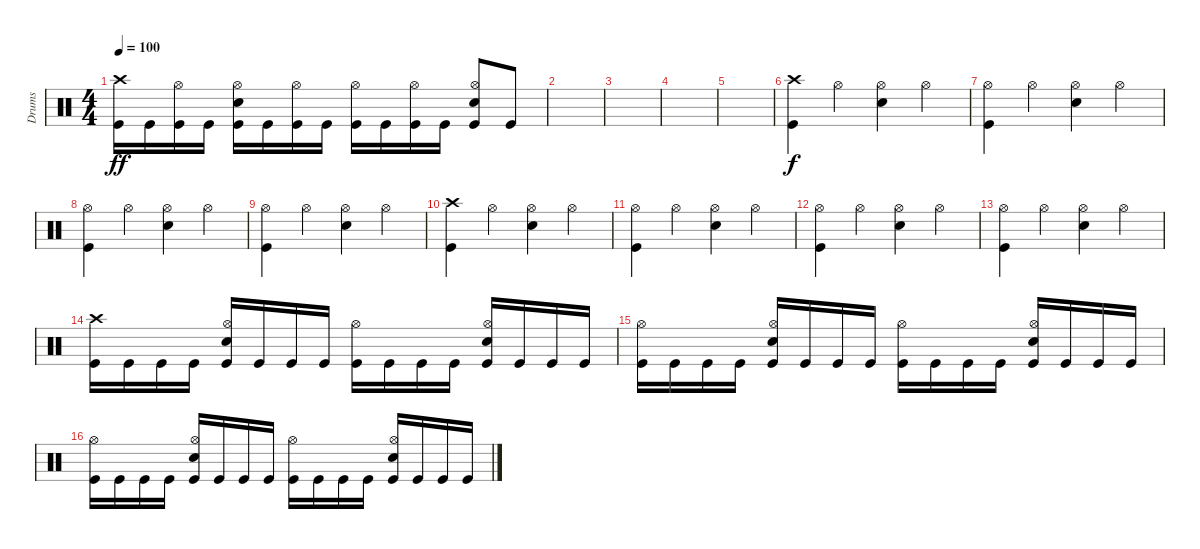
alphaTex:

\track ("Drums" "Drums") {instrument percussion}
\staff {score}
\articulation defaults
\ts (4 4)
\tempo 100
\clef neutral
\ks c
("Crash high (hit)" "Kick (hit)").16{dy ff} "Kick (hit)".16 ("Hi-Hat (open)" "Kick (hit)").16 "Kick (hit)".16 ("Hi-Hat (open)" "Snare (hit) 2" "Kick (hit)").16 "Kick (hit)".16 ("Hi-Hat (open)" "Kick (hit)").16 "Kick (hit)".16 ("Hi-Hat (open)" "Kick (hit)").16 "Kick (hit)".16 ("Hi-Hat (open)" "Kick (hit)").16 "Kick (hit)".16 ("Hi-Hat (open)" "Snare (hit) 2" "Kick (hit)").8 "Kick (hit)".8 |
|
|
|
|
("Crash high (hit)" "Kick (hit)").4{dy f} "Hi-Hat (open)".4 ("Hi-Hat (open)" "Snare (hit) 2").4 "Hi-Hat (open)".4 |
("Hi-Hat (open)" "Kick (hit)").4 "Hi-Hat (open)".4 ("Hi-Hat (open)" "Snare (hit) 2").4 "Hi-Hat (open)".4 |
("Hi-Hat (open)" "Kick (hit)").4 "Hi-Hat (open)".4 ("Hi-Hat (open)" "Snare (hit) 2").4 "Hi-Hat (open)".4 |
("Hi-Hat (open)" "Kick (hit)").4 "Hi-Hat (open)".4 ("Hi-Hat (open)" "Snare (hit) 2").4 "Hi-Hat (open)".4 |
("Crash high (hit)" "Kick (hit)").4 "Hi-Hat (open)".4 ("Hi-Hat (open)" "Snare (hit) 2").4 "Hi-Hat (open)".4 |
("Hi-Hat (open)" "Kick (hit)").4 "Hi-Hat (open)".4 ("Hi-Hat (open)" "Snare (hit) 2").4 "Hi-Hat (open)".4 |
("Hi-Hat (open)" "Kick (hit)").4 "Hi-Hat (open)".4 ("Hi-Hat (open)" "Snare (hit) 2").4 "Hi-Hat (open)".4 |
("Hi-Hat (open)" "Kick (hit)").4 "Hi-Hat (open)".4 ("Hi-Hat (open)" "Snare (hit) 2").4 "Hi-Hat (open)".4 |
("Crash high (hit)" "Kick (hit)").16 "Kick (hit)".16 "Kick (hit)".16 "Kick (hit)".16 ("Hi-Hat (open)" "Snare (hit) 2" "Kick (hit)").16 "Kick (hit)".16 "Kick (hit)".16 "Kick (hit)".16 ("Hi-Hat (open)" "Kick (hit)").16 "Kick (hit)".16 "Kick (hit)".16 "Kick (hit)".16 ("Hi-Hat (open)" "Snare (hit) 2" "Kick (hit)").16 "Kick (hit)".16 "Kick (hit)".16 "Kick (hit)".16 |
("Hi-Hat (open)" "Kick (hit)").16 "Kick (hit)".16 "Kick (hit)".16 "Kick (hit)".16 ("Hi-Hat (open)" "Snare (hit) 2" "Kick (hit)").16 "Kick (hit)".16 "Kick (hit)".16 "Kick (hit)".16 ("Hi-Hat (open)" "Kick (hit)").16 "Kick (hit)".16 "Kick (hit)".16 "Kick (hit)".16 ("Hi-Hat (open)" "Snare (hit) 2" "Kick (hit)").16 "Kick (hit)".16 "Kick (hit)".16 "Kick (hit)".16 |
("Hi-Hat (open)" "Kick (hit)").16 "Kick (hit)".16 "Kick (hit)".16 "Kick (hit)".16 ("Hi-Hat (open)" "Snare (hit) 2" "Kick (hit)").16 "Kick (hit)".16 "Kick (hit)".16 "Kick (hit)".16 ("Hi-Hat (open)" "Kick (hit)").16 "Kick (hit)".16 "Kick (hit)".16 "Kick (hit)".16 ("Hi-Hat (open)" "Snare (hit) 2" "Kick (hit)").16 "Kick (hit)".16 "Kick (hit)".16 "Kick (hit)".16
